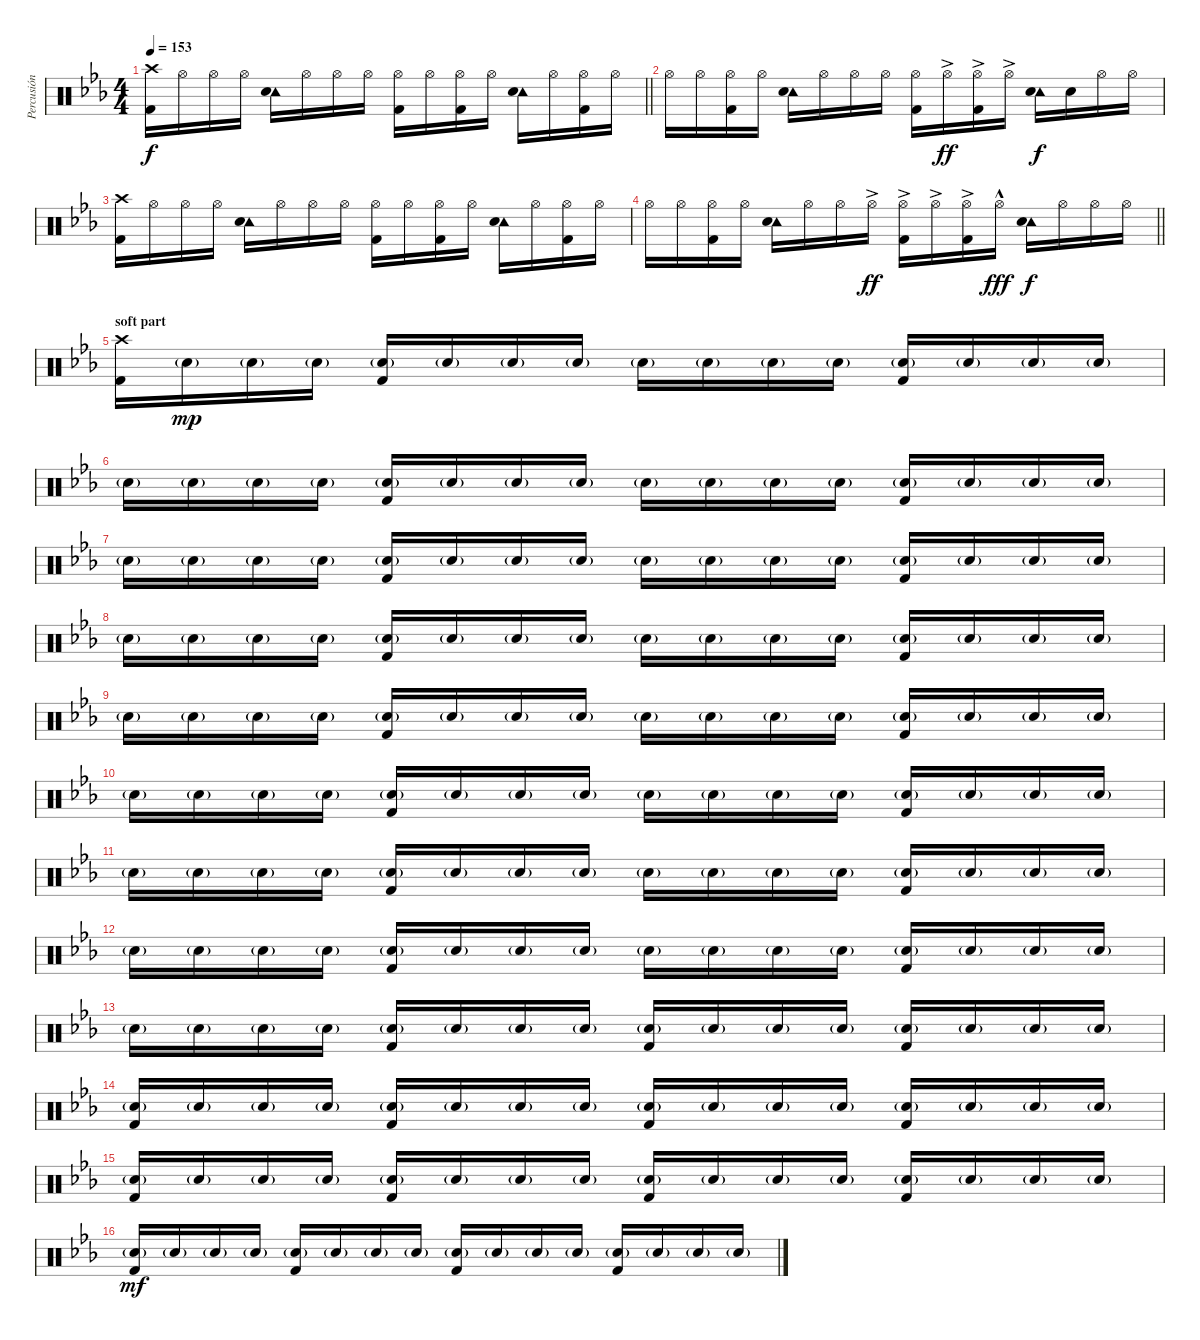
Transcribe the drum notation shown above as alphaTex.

\track ("Percusión" "Percusión") {instrument percussion}
\staff {score}
\articulation defaults
\ts (4 4)
\tempo 153
\clef neutral
\barLineRight lightlight
\ks eb
("Crash high (hit)" "Kick (hit) 2").16{dy f} "Hi-Hat (open)".16 "Hi-Hat (open)".16 "Hi-Hat (open)".16 ("Tambourine (hit)" "Snare (hit) 2").16 "Hi-Hat (open)".16 "Hi-Hat (open)".16 "Hi-Hat (open)".16 ("Hi-Hat (open)" "Kick (hit) 2").16 "Hi-Hat (open)".16 ("Hi-Hat (open)" "Kick (hit) 2").16 "Hi-Hat (open)".16 ("Tambourine (hit)" "Snare (hit) 2").16 "Hi-Hat (open)".16 ("Hi-Hat (open)" "Kick (hit) 2").16 "Hi-Hat (open)".16 |
"Hi-Hat (open)".16 "Hi-Hat (open)".16 ("Hi-Hat (open)" "Kick (hit) 2").16 "Hi-Hat (open)".16 ("Tambourine (hit)" "Snare (hit) 2").16 "Hi-Hat (open)".16 "Hi-Hat (open)".16 "Hi-Hat (open)".16 ("Hi-Hat (open)" "Kick (hit) 2").16 "Hi-Hat (open)"{ac}.16{dy ff} ("Hi-Hat (open)"{ac} "Kick (hit) 2").16 "Hi-Hat (open)"{ac}.16 ("Tambourine (hit)" "Snare (hit) 2").16{dy f} "Snare (hit) 2".16 "Hi-Hat (open)".16 "Hi-Hat (open)".16 |
("Crash high (hit)" "Kick (hit) 2").16 "Hi-Hat (open)".16 "Hi-Hat (open)".16 "Hi-Hat (open)".16 ("Tambourine (hit)" "Snare (hit) 2").16 "Hi-Hat (open)".16 "Hi-Hat (open)".16 "Hi-Hat (open)".16 ("Hi-Hat (open)" "Kick (hit) 2").16 "Hi-Hat (open)".16 ("Hi-Hat (open)" "Kick (hit) 2").16 "Hi-Hat (open)".16 ("Tambourine (hit)" "Snare (hit) 2").16 "Hi-Hat (open)".16 ("Hi-Hat (open)" "Kick (hit) 2").16 "Hi-Hat (open)".16 |
\barLineRight lightlight "Hi-Hat (open)".16 "Hi-Hat (open)".16
("Hi-Hat (open)" "Kick (hit) 2").16 "Hi-Hat (open)".16 ("Tambourine (hit)" "Snare (hit) 2").16 "Hi-Hat (open)".16 "Hi-Hat (open)".16 "Hi-Hat (open)"{ac}.16{dy ff} ("Hi-Hat (open)"{ac} "Kick (hit) 2").16 "Hi-Hat (open)"{ac}.16 ("Hi-Hat (open)"{ac} "Kick (hit) 2").16 "Hi-Hat (open)"{hac}.16{dy fff} ("Tambourine (hit)" "Snare (hit) 2").16{dy f} "Hi-Hat (open)".16 "Hi-Hat (open)".16 "Hi-Hat (open)".16 |
\section ("" "soft part")
("Crash high (hit)" "Kick (hit) 2").16 "Snare (hit) 2"{g}.16{dy mp} "Snare (hit) 2"{g}.16 "Snare (hit) 2"{g}.16 ("Snare (hit) 2"{g} "Kick (hit) 2").16 "Snare (hit) 2"{g}.16 "Snare (hit) 2"{g}.16 "Snare (hit) 2"{g}.16 "Snare (hit) 2"{g}.16 "Snare (hit) 2"{g}.16 "Snare (hit) 2"{g}.16 "Snare (hit) 2"{g}.16 ("Snare (hit) 2"{g} "Kick (hit) 2").16 "Snare (hit) 2"{g}.16 "Snare (hit) 2"{g}.16 "Snare (hit) 2"{g}.16 |
"Snare (hit) 2"{g}.16 "Snare (hit) 2"{g}.16 "Snare (hit) 2"{g}.16 "Snare (hit) 2"{g}.16 ("Snare (hit) 2"{g} "Kick (hit) 2").16 "Snare (hit) 2"{g}.16 "Snare (hit) 2"{g}.16 "Snare (hit) 2"{g}.16 "Snare (hit) 2"{g}.16 "Snare (hit) 2"{g}.16 "Snare (hit) 2"{g}.16 "Snare (hit) 2"{g}.16 ("Snare (hit) 2"{g} "Kick (hit) 2").16 "Snare (hit) 2"{g}.16 "Snare (hit) 2"{g}.16 "Snare (hit) 2"{g}.16 |
"Snare (hit) 2"{g}.16 "Snare (hit) 2"{g}.16 "Snare (hit) 2"{g}.16 "Snare (hit) 2"{g}.16 ("Snare (hit) 2"{g} "Kick (hit) 2").16 "Snare (hit) 2"{g}.16 "Snare (hit) 2"{g}.16 "Snare (hit) 2"{g}.16 "Snare (hit) 2"{g}.16 "Snare (hit) 2"{g}.16 "Snare (hit) 2"{g}.16 "Snare (hit) 2"{g}.16 ("Snare (hit) 2"{g} "Kick (hit) 2").16 "Snare (hit) 2"{g}.16 "Snare (hit) 2"{g}.16 "Snare (hit) 2"{g}.16 |
"Snare (hit) 2"{g}.16 "Snare (hit) 2"{g}.16 "Snare (hit) 2"{g}.16 "Snare (hit) 2"{g}.16 ("Snare (hit) 2"{g} "Kick (hit) 2").16 "Snare (hit) 2"{g}.16 "Snare (hit) 2"{g}.16 "Snare (hit) 2"{g}.16 "Snare (hit) 2"{g}.16 "Snare (hit) 2"{g}.16 "Snare (hit) 2"{g}.16 "Snare (hit) 2"{g}.16 ("Snare (hit) 2"{g} "Kick (hit) 2").16 "Snare (hit) 2"{g}.16 "Snare (hit) 2"{g}.16 "Snare (hit) 2"{g}.16 |
"Snare (hit) 2"{g}.16 "Snare (hit) 2"{g}.16 "Snare (hit) 2"{g}.16 "Snare (hit) 2"{g}.16 ("Snare (hit) 2"{g} "Kick (hit) 2").16 "Snare (hit) 2"{g}.16 "Snare (hit) 2"{g}.16 "Snare (hit) 2"{g}.16 "Snare (hit) 2"{g}.16 "Snare (hit) 2"{g}.16 "Snare (hit) 2"{g}.16 "Snare (hit) 2"{g}.16 ("Snare (hit) 2"{g} "Kick (hit) 2").16 "Snare (hit) 2"{g}.16 "Snare (hit) 2"{g}.16 "Snare (hit) 2"{g}.16 |
"Snare (hit) 2"{g}.16 "Snare (hit) 2"{g}.16 "Snare (hit) 2"{g}.16 "Snare (hit) 2"{g}.16 ("Snare (hit) 2"{g} "Kick (hit) 2").16 "Snare (hit) 2"{g}.16 "Snare (hit) 2"{g}.16 "Snare (hit) 2"{g}.16 "Snare (hit) 2"{g}.16 "Snare (hit) 2"{g}.16 "Snare (hit) 2"{g}.16 "Snare (hit) 2"{g}.16 ("Snare (hit) 2"{g} "Kick (hit) 2").16 "Snare (hit) 2"{g}.16 "Snare (hit) 2"{g}.16 "Snare (hit) 2"{g}.16 |
"Snare (hit) 2"{g}.16 "Snare (hit) 2"{g}.16 "Snare (hit) 2"{g}.16 "Snare (hit) 2"{g}.16 ("Snare (hit) 2"{g} "Kick (hit) 2").16 "Snare (hit) 2"{g}.16 "Snare (hit) 2"{g}.16 "Snare (hit) 2"{g}.16 "Snare (hit) 2"{g}.16 "Snare (hit) 2"{g}.16 "Snare (hit) 2"{g}.16 "Snare (hit) 2"{g}.16 ("Snare (hit) 2"{g} "Kick (hit) 2").16 "Snare (hit) 2"{g}.16 "Snare (hit) 2"{g}.16 "Snare (hit) 2"{g}.16 |
"Snare (hit) 2"{g}.16 "Snare (hit) 2"{g}.16 "Snare (hit) 2"{g}.16 "Snare (hit) 2"{g}.16 ("Snare (hit) 2"{g} "Kick (hit) 2").16 "Snare (hit) 2"{g}.16 "Snare (hit) 2"{g}.16 "Snare (hit) 2"{g}.16 "Snare (hit) 2"{g}.16 "Snare (hit) 2"{g}.16 "Snare (hit) 2"{g}.16 "Snare (hit) 2"{g}.16 ("Snare (hit) 2"{g} "Kick (hit) 2").16 "Snare (hit) 2"{g}.16 "Snare (hit) 2"{g}.16 "Snare (hit) 2"{g}.16 |
"Snare (hit) 2"{g}.16 "Snare (hit) 2"{g}.16 "Snare (hit) 2"{g}.16 "Snare (hit) 2"{g}.16 ("Snare (hit) 2"{g} "Kick (hit) 2").16 "Snare (hit) 2"{g}.16 "Snare (hit) 2"{g}.16 "Snare (hit) 2"{g}.16 ("Snare (hit) 2"{g} "Kick (hit) 2").16 "Snare (hit) 2"{g}.16 "Snare (hit) 2"{g}.16 "Snare (hit) 2"{g}.16 ("Snare (hit) 2"{g} "Kick (hit) 2").16 "Snare (hit) 2"{g}.16 "Snare (hit) 2"{g}.16 "Snare (hit) 2"{g}.16 |
("Snare (hit) 2"{g} "Kick (hit) 2").16 "Snare (hit) 2"{g}.16 "Snare (hit) 2"{g}.16 "Snare (hit) 2"{g}.16 ("Snare (hit) 2"{g} "Kick (hit) 2").16 "Snare (hit) 2"{g}.16 "Snare (hit) 2"{g}.16 "Snare (hit) 2"{g}.16 ("Snare (hit) 2"{g} "Kick (hit) 2").16 "Snare (hit) 2"{g}.16 "Snare (hit) 2"{g}.16 "Snare (hit) 2"{g}.16 ("Snare (hit) 2"{g} "Kick (hit) 2").16 "Snare (hit) 2"{g}.16 "Snare (hit) 2"{g}.16 "Snare (hit) 2"{g}.16 |
("Snare (hit) 2"{g} "Kick (hit) 2").16 "Snare (hit) 2"{g}.16 "Snare (hit) 2"{g}.16 "Snare (hit) 2"{g}.16 ("Snare (hit) 2"{g} "Kick (hit) 2").16 "Snare (hit) 2"{g}.16 "Snare (hit) 2"{g}.16 "Snare (hit) 2"{g}.16 ("Snare (hit) 2"{g} "Kick (hit) 2").16 "Snare (hit) 2"{g}.16 "Snare (hit) 2"{g}.16 "Snare (hit) 2"{g}.16 ("Snare (hit) 2"{g} "Kick (hit) 2").16 "Snare (hit) 2"{g}.16 "Snare (hit) 2"{g}.16 "Snare (hit) 2"{g}.16 |
("Snare (hit) 2"{g} "Kick (hit) 2").16{dy mf} "Snare (hit) 2"{g}.16 "Snare (hit) 2"{g}.16 "Snare (hit) 2"{g}.16 ("Snare (hit) 2"{g} "Kick (hit) 2").16 "Snare (hit) 2"{g}.16 "Snare (hit) 2"{g}.16 "Snare (hit) 2"{g}.16 ("Snare (hit) 2"{g} "Kick (hit) 2").16 "Snare (hit) 2"{g}.16 "Snare (hit) 2"{g}.16 "Snare (hit) 2"{g}.16 ("Snare (hit) 2"{g} "Kick (hit) 2").16 "Snare (hit) 2"{g}.16 "Snare (hit) 2"{g}.16 "Snare (hit) 2"{g}.16
